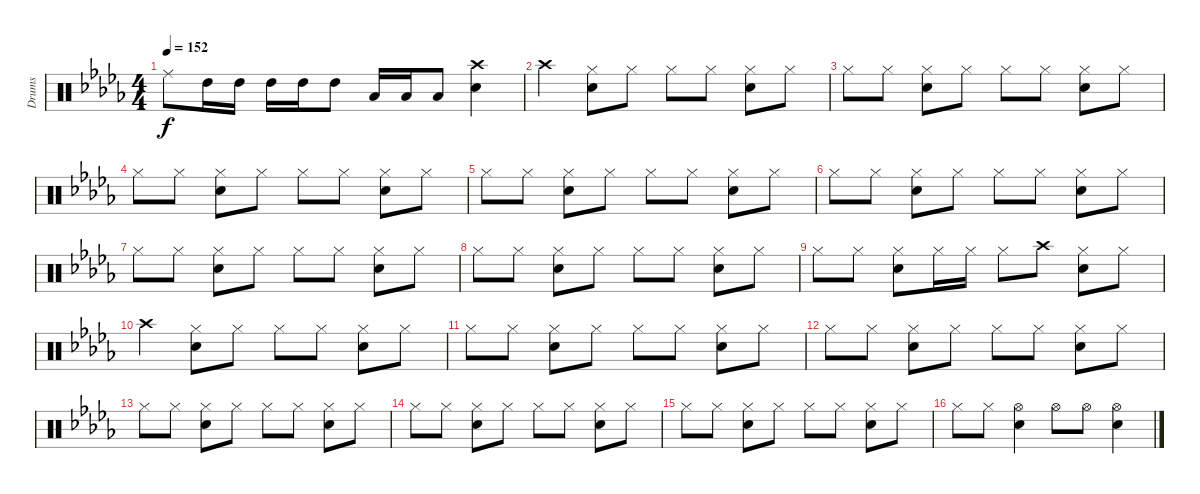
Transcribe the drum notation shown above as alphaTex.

\track ("Drums" "Drums") {instrument percussion}
\staff {score}
\articulation defaults
\ts (4 4)
\tempo 152
\clef neutral
\ks db "Ride (middle)".8{dy f} "High Tom (hit)".16 "High Tom (hit)".16 "High Tom (hit)".16 "High Tom (hit)".16 "High Tom (hit)".8 "Low Tom (hit)".16 "Low Tom (hit)".16 "Low Tom (hit)".8
("Crash high (hit)" "Snare (hit) 2").4 |
"Crash high (hit)".4 ("Hi-Hat (closed)" "Snare (hit) 2").8 "Hi-Hat (closed)".8 "Hi-Hat (closed)".8 "Hi-Hat (closed)".8 ("Hi-Hat (closed)" "Snare (hit) 2").8 "Hi-Hat (closed)".8 |
"Hi-Hat (closed)".8 "Hi-Hat (closed)".8 ("Hi-Hat (closed)" "Snare (hit) 2").8 "Hi-Hat (closed)".8 "Hi-Hat (closed)".8 "Hi-Hat (closed)".8 ("Hi-Hat (closed)" "Snare (hit) 2").8 "Hi-Hat (closed)".8 |
"Hi-Hat (closed)".8 "Hi-Hat (closed)".8 ("Hi-Hat (closed)" "Snare (hit) 2").8 "Hi-Hat (closed)".8 "Hi-Hat (closed)".8 "Hi-Hat (closed)".8 ("Hi-Hat (closed)" "Snare (hit) 2").8 "Hi-Hat (closed)".8 |
"Hi-Hat (closed)".8 "Hi-Hat (closed)".8 ("Hi-Hat (closed)" "Snare (hit) 2").8 "Hi-Hat (closed)".8 "Hi-Hat (closed)".8 "Hi-Hat (closed)".8 ("Hi-Hat (closed)" "Snare (hit) 2").8 "Hi-Hat (closed)".8 |
"Hi-Hat (closed)".8 "Hi-Hat (closed)".8 ("Hi-Hat (closed)" "Snare (hit) 2").8 "Hi-Hat (closed)".8 "Hi-Hat (closed)".8 "Hi-Hat (closed)".8 ("Hi-Hat (closed)" "Snare (hit) 2").8 "Hi-Hat (closed)".8 |
"Hi-Hat (closed)".8 "Hi-Hat (closed)".8 ("Hi-Hat (closed)" "Snare (hit) 2").8 "Hi-Hat (closed)".8 "Hi-Hat (closed)".8 "Hi-Hat (closed)".8 ("Hi-Hat (closed)" "Snare (hit) 2").8 "Hi-Hat (closed)".8 |
"Hi-Hat (closed)".8 "Hi-Hat (closed)".8 ("Hi-Hat (closed)" "Snare (hit) 2").8 "Hi-Hat (closed)".8 "Hi-Hat (closed)".8 "Hi-Hat (closed)".8 ("Hi-Hat (closed)" "Snare (hit) 2").8 "Hi-Hat (closed)".8 |
"Hi-Hat (closed)".8 "Hi-Hat (closed)".8 ("Hi-Hat (closed)" "Snare (hit) 2").8 "Hi-Hat (closed)".16 "Hi-Hat (closed)".16 "Hi-Hat (closed)".8 "Crash high (hit)".8 ("Hi-Hat (closed)" "Snare (hit) 2").8 "Hi-Hat (closed)".8 |
"Crash high (hit)".4 ("Hi-Hat (closed)" "Snare (hit) 2").8 "Hi-Hat (closed)".8 "Hi-Hat (closed)".8 "Hi-Hat (closed)".8 ("Hi-Hat (closed)" "Snare (hit) 2").8 "Hi-Hat (closed)".8 |
"Hi-Hat (closed)".8 "Hi-Hat (closed)".8 ("Hi-Hat (closed)" "Snare (hit) 2").8 "Hi-Hat (closed)".8 "Hi-Hat (closed)".8 "Hi-Hat (closed)".8 ("Hi-Hat (closed)" "Snare (hit) 2").8 "Hi-Hat (closed)".8 |
"Hi-Hat (closed)".8 "Hi-Hat (closed)".8 ("Hi-Hat (closed)" "Snare (hit) 2").8 "Hi-Hat (closed)".8 "Hi-Hat (closed)".8 "Hi-Hat (closed)".8 ("Hi-Hat (closed)" "Snare (hit) 2").8 "Hi-Hat (closed)".8 |
"Hi-Hat (closed)".8 "Hi-Hat (closed)".8 ("Hi-Hat (closed)" "Snare (hit) 2").8 "Hi-Hat (closed)".8 "Hi-Hat (closed)".8 "Hi-Hat (closed)".8 ("Hi-Hat (closed)" "Snare (hit) 2").8 "Hi-Hat (closed)".8 |
"Hi-Hat (closed)".8 "Hi-Hat (closed)".8 ("Hi-Hat (closed)" "Snare (hit) 2").8 "Hi-Hat (closed)".8 "Hi-Hat (closed)".8 "Hi-Hat (closed)".8 ("Hi-Hat (closed)" "Snare (hit) 2").8 "Hi-Hat (closed)".8 |
"Hi-Hat (closed)".8 "Hi-Hat (closed)".8 ("Hi-Hat (closed)" "Snare (hit) 2").8 "Hi-Hat (closed)".8 "Hi-Hat (closed)".8 "Hi-Hat (closed)".8 ("Hi-Hat (closed)" "Snare (hit) 2").8 "Hi-Hat (closed)".8 |
"Hi-Hat (closed)".8 "Hi-Hat (closed)".8 ("Hi-Hat (open)" "Snare (hit) 2").4 "Hi-Hat (open)".8 "Hi-Hat (open)".8 ("Hi-Hat (open)" "Snare (hit) 2").4
